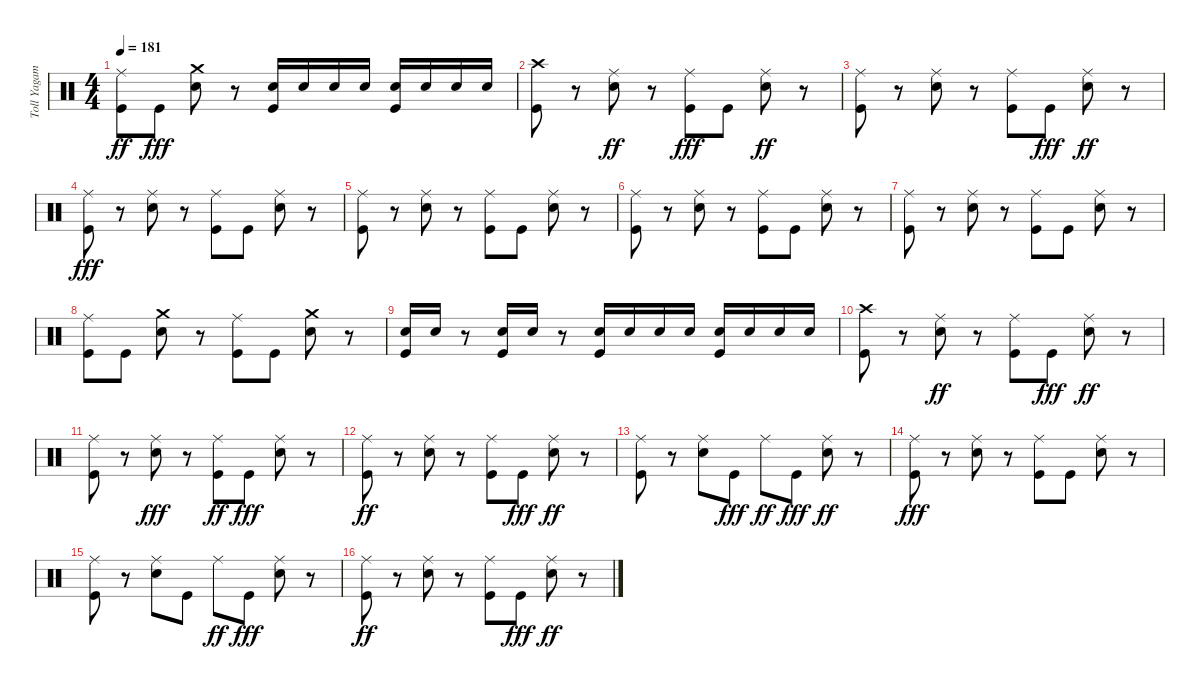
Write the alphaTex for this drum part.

\track ("Toll Yagami" "Toll Yagam") {instrument percussion}
\staff {score}
\articulation defaults
\ts (4 4)
\tempo 181
\clef neutral
\ks c
("Kick (hit)" "Ride (middle)").8{dy ff} "Kick (hit)".8{dy fff} ("Snare (hit) 2" "Crash medium (hit)").8 r.8 ("Kick (hit)" "Snare (hit) 2").16 "Snare (hit) 2".16 "Snare (hit) 2".16 "Snare (hit) 2".16 ("Kick (hit)" "Snare (hit) 2").16 "Snare (hit) 2".16 "Snare (hit) 2".16 "Snare (hit) 2".16 |
("Crash high (hit)" "Kick (hit)").8 r.8 ("Snare (hit) 2" "Ride (middle)").8{dy ff} r.8 ("Ride (middle)" "Kick (hit)").8{dy fff} "Kick (hit)".8 ("Snare (hit) 2" "Ride (middle)").8{dy ff} r.8 |
("Kick (hit)" "Ride (middle)").8 r.8 ("Snare (hit) 2" "Ride (middle)").8 r.8 ("Kick (hit)" "Ride (middle)").8 "Kick (hit)".8{dy fff} ("Snare (hit) 2" "Ride (middle)").8{dy ff} r.8 |
("Ride (middle)" "Kick (hit)").8{dy fff} r.8 ("Ride (middle)" "Snare (hit) 2").8 r.8 ("Ride (middle)" "Kick (hit)").8 "Kick (hit)".8 ("Ride (middle)" "Snare (hit) 2").8 r.8 |
("Ride (middle)" "Kick (hit)").8 r.8 ("Ride (middle)" "Snare (hit) 2").8 r.8 ("Ride (middle)" "Kick (hit)").8 "Kick (hit)".8 ("Ride (middle)" "Snare (hit) 2").8 r.8 |
("Ride (middle)" "Kick (hit)").8 r.8 ("Ride (middle)" "Snare (hit) 2").8 r.8 ("Ride (middle)" "Kick (hit)").8 "Kick (hit)".8 ("Ride (middle)" "Snare (hit) 2").8 r.8 |
("Ride (middle)" "Kick (hit)").8 r.8 ("Ride (middle)" "Snare (hit) 2").8 r.8 ("Ride (middle)" "Kick (hit)").8 "Kick (hit)".8 ("Ride (middle)" "Snare (hit) 2").8 r.8 |
("Ride (middle)" "Kick (hit)").8 "Kick (hit)".8 ("Snare (hit) 2" "Crash medium (hit)").8 r.8 ("Ride (middle)" "Kick (hit)").8 "Kick (hit)".8 ("Snare (hit) 2" "Crash medium (hit)").8 r.8 |
("Snare (hit) 2" "Kick (hit)").16 "Snare (hit) 2".16 r.8 ("Snare (hit) 2" "Kick (hit)").16 "Snare (hit) 2".16 r.8 ("Snare (hit) 2" "Kick (hit)").16 "Snare (hit) 2".16 "Snare (hit) 2".16 "Snare (hit) 2".16 ("Snare (hit) 2" "Kick (hit)").16 "Snare (hit) 2".16 "Snare (hit) 2".16 "Snare (hit) 2".16 |
("Kick (hit)" "Crash high (hit)").8 r.8 ("Snare (hit) 2" "Ride (middle)").8{dy ff} r.8 ("Kick (hit)" "Ride (middle)").8 "Kick (hit)".8{dy fff} ("Snare (hit) 2" "Ride (middle)").8{dy ff} r.8 |
("Kick (hit)" "Ride (middle)").8 r.8 ("Ride (middle)" "Snare (hit) 2").8{dy fff} r.8 ("Kick (hit)" "Ride (middle)").8{dy ff} "Kick (hit)".8{dy fff} ("Ride (middle)" "Snare (hit) 2").8 r.8 |
("Kick (hit)" "Ride (middle)").8{dy ff} r.8 ("Snare (hit) 2" "Ride (middle)").8 r.8 ("Kick (hit)" "Ride (middle)").8 "Kick (hit)".8{dy fff} ("Snare (hit) 2" "Ride (middle)").8{dy ff} r.8 |
("Kick (hit)" "Ride (middle)").8 r.8 ("Snare (hit) 2" "Ride (middle)").8 "Kick (hit)".8{dy fff} "Ride (middle)".8{dy ff} "Kick (hit)".8{dy fff} ("Snare (hit) 2" "Ride (middle)").8{dy ff} r.8 |
("Ride (middle)" "Kick (hit)").8{dy fff} r.8 ("Ride (middle)" "Snare (hit) 2").8 r.8 ("Ride (middle)" "Kick (hit)").8 "Kick (hit)".8 ("Ride (middle)" "Snare (hit) 2").8 r.8 |
("Ride (middle)" "Kick (hit)").8 r.8 ("Ride (middle)" "Snare (hit) 2").8 "Kick (hit)".8 "Ride (middle)".8{dy ff} "Kick (hit)".8{dy fff} ("Ride (middle)" "Snare (hit) 2").8 r.8 |
("Kick (hit)" "Ride (middle)").8{dy ff} r.8 ("Snare (hit) 2" "Ride (middle)").8 r.8 ("Kick (hit)" "Ride (middle)").8 "Kick (hit)".8{dy fff} ("Snare (hit) 2" "Ride (middle)").8{dy ff} r.8
